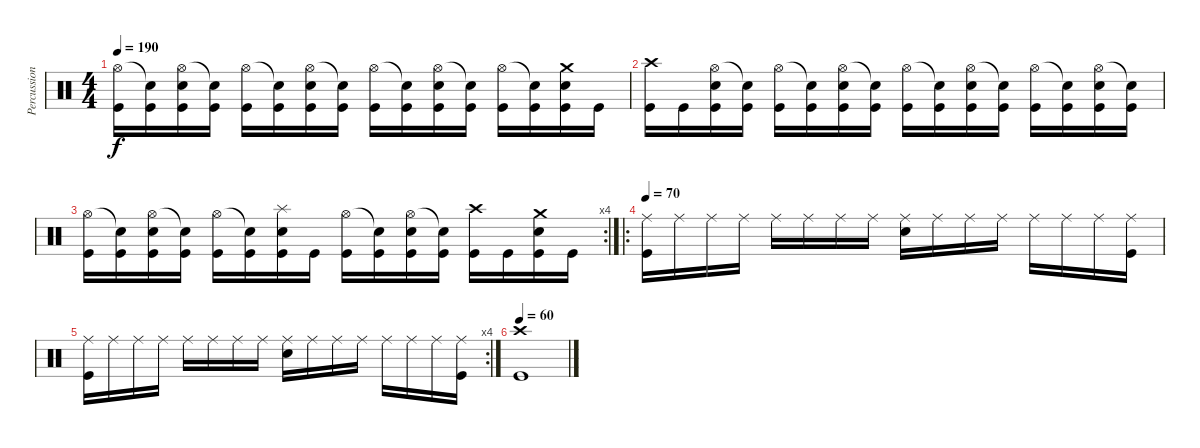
\track ("Percussion" "Percussion") {instrument percussion}
\staff {score}
\articulation defaults
\ts (4 4)
\tempo 190
\clef neutral
\ks c
("Hi-Hat (open)" "Kick (hit)").16{dy f} ("Snare (hit)"{t} "Kick (hit)").16 ("Hi-Hat (open)" "Electric Snare (hit)" "Kick (hit)").16 ("Snare (hit)"{t} "Kick (hit)").16 ("Hi-Hat (open)" "Kick (hit)").16 ("Snare (hit)"{t} "Kick (hit)").16 ("Hi-Hat (open)" "Electric Snare (hit)" "Kick (hit)").16 ("Snare (hit)"{t} "Kick (hit)").16 ("Hi-Hat (open)" "Kick (hit)").16 ("Snare (hit)"{t} "Kick (hit)").16 ("Hi-Hat (open)" "Electric Snare (hit)" "Kick (hit)").16 ("Snare (hit)"{t} "Kick (hit)").16 ("Hi-Hat (open)" "Kick (hit)").16 ("Snare (hit)"{t} "Kick (hit)").16 ("Crash medium (hit)" "Electric Snare (hit)" "Kick (hit)").16 "Kick (hit)".16 |
("Crash high (hit)" "Kick (hit)").16 "Kick (hit)".16 ("Hi-Hat (open)" "Electric Snare (hit)" "Kick (hit)").16 ("Snare (hit)"{t} "Kick (hit)").16 ("Hi-Hat (open)" "Kick (hit)").16 ("Snare (hit)"{t} "Kick (hit)").16 ("Hi-Hat (open)" "Electric Snare (hit)" "Kick (hit)").16 ("Snare (hit)"{t} "Kick (hit)").16 ("Hi-Hat (open)" "Kick (hit)").16 ("Snare (hit)"{t} "Kick (hit)").16 ("Hi-Hat (open)" "Electric Snare (hit)" "Kick (hit)").16 ("Snare (hit)"{t} "Kick (hit)").16 ("Hi-Hat (open)" "Kick (hit)").16 ("Snare (hit)"{t} "Kick (hit)").16 ("Hi-Hat (open)" "Electric Snare (hit)" "Kick (hit)").16 ("Snare (hit)"{t} "Kick (hit)").16 |
\rc 4
("Hi-Hat (open)" "Kick (hit)").16 ("Snare (hit)"{t} "Kick (hit)").16 ("Hi-Hat (open)" "Electric Snare (hit)" "Kick (hit)").16 ("Snare (hit)"{t} "Kick (hit)").16 ("Hi-Hat (open)" "Kick (hit)").16 ("Snare (hit)"{t} "Kick (hit)").16 ("Splash (hit)" "Electric Snare (hit)" "Kick (hit)").16 "Kick (hit)".16 ("Hi-Hat (open)" "Kick (hit)").16 ("Snare (hit)"{t} "Kick (hit)").16 ("Hi-Hat (open)" "Electric Snare (hit)" "Kick (hit)").16 ("Snare (hit)"{t} "Kick (hit)").16 ("Crash high (hit)" "Kick (hit)").16 "Kick (hit)".16 ("Crash medium (hit)" "Electric Snare (hit)" "Kick (hit)").16 "Kick (hit)".16 |
\ro
\tempo 70
("Ride (middle)" "Kick (hit)").16 "Ride (middle)".16 "Ride (middle)".16 "Ride (middle)".16 "Ride (middle)".16 "Ride (middle)".16 "Ride (middle)".16 "Ride (middle)".16 ("Ride (middle)" "Electric Snare (hit)").16 "Ride (middle)".16 "Ride (middle)".16 "Ride (middle)".16 "Ride (middle)".16 "Ride (middle)".16 "Ride (middle)".16 ("Ride (middle)" "Kick (hit)").16 |
\rc 4
("Ride (middle)" "Kick (hit)").16 "Ride (middle)".16 "Ride (middle)".16 "Ride (middle)".16 "Ride (middle)".16 "Ride (middle)".16 "Ride (middle)".16 "Ride (middle)".16 ("Ride (middle)" "Electric Snare (hit)").16 "Ride (middle)".16 "Ride (middle)".16 "Ride (middle)".16 "Ride (middle)".16 "Ride (middle)".16 "Ride (middle)".16 ("Ride (middle)" "Kick (hit)").16 |
\tempo 60
("Crash high (hit)" "Kick (hit)").1
